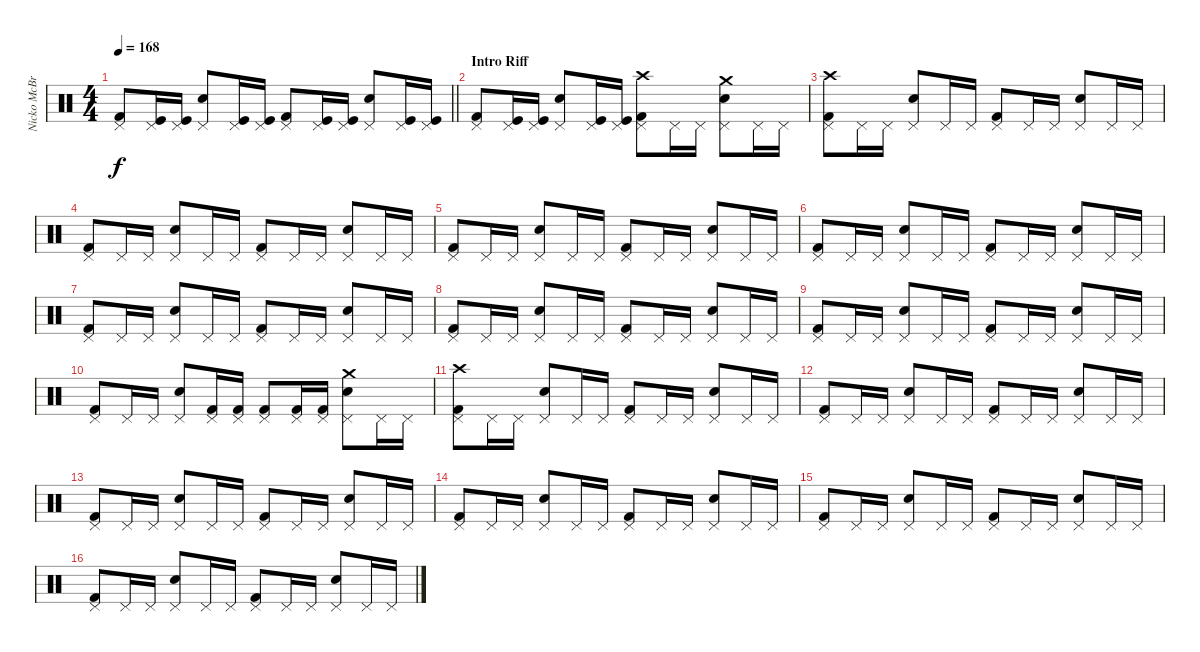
\track ("Nicko McBrain" "Nicko McBr") {instrument percussion}
\staff {score}
\articulation defaults
\ts (4 4)
\tempo 168
\clef neutral
\barLineRight lightlight
\ks c
("Kick (hit) 2" "Pedal Hi-Hat (hit)").8{dy f} ("Kick (hit)" "Pedal Hi-Hat (hit)").16 ("Kick (hit)" "Pedal Hi-Hat (hit)").16 ("Snare (hit) 2" "Pedal Hi-Hat (hit)").8 ("Kick (hit)" "Pedal Hi-Hat (hit)").16 ("Kick (hit)" "Pedal Hi-Hat (hit)").16 ("Kick (hit) 2" "Pedal Hi-Hat (hit)").8 ("Kick (hit)" "Pedal Hi-Hat (hit)").16 ("Kick (hit)" "Pedal Hi-Hat (hit)").16 ("Snare (hit) 2" "Pedal Hi-Hat (hit)").8 ("Kick (hit)" "Pedal Hi-Hat (hit)").16 ("Kick (hit)" "Pedal Hi-Hat (hit)").16 |
\section ("" "Intro Riff")
("Kick (hit) 2" "Pedal Hi-Hat (hit)").8 ("Kick (hit)" "Pedal Hi-Hat (hit)").16 ("Kick (hit)" "Pedal Hi-Hat (hit)").16 ("Snare (hit) 2" "Pedal Hi-Hat (hit)").8 ("Kick (hit)" "Pedal Hi-Hat (hit)").16 ("Kick (hit)" "Pedal Hi-Hat (hit)").16 ("Kick (hit) 2" "Pedal Hi-Hat (hit)" "Crash high (hit)").8 "Pedal Hi-Hat (hit)".16 "Pedal Hi-Hat (hit)".16 ("Snare (hit) 2" "Pedal Hi-Hat (hit)" "Crash medium (hit)").8 "Pedal Hi-Hat (hit)".16 "Pedal Hi-Hat (hit)".16 |
("Kick (hit) 2" "Pedal Hi-Hat (hit)" "Crash high (hit)").8 "Pedal Hi-Hat (hit)".16 "Pedal Hi-Hat (hit)".16 ("Snare (hit) 2" "Pedal Hi-Hat (hit)").8 "Pedal Hi-Hat (hit)".16 "Pedal Hi-Hat (hit)".16 ("Kick (hit) 2" "Pedal Hi-Hat (hit)").8 "Pedal Hi-Hat (hit)".16 "Pedal Hi-Hat (hit)".16 ("Snare (hit) 2" "Pedal Hi-Hat (hit)").8 "Pedal Hi-Hat (hit)".16 "Pedal Hi-Hat (hit)".16 |
("Kick (hit) 2" "Pedal Hi-Hat (hit)").8 "Pedal Hi-Hat (hit)".16 "Pedal Hi-Hat (hit)".16 ("Snare (hit) 2" "Pedal Hi-Hat (hit)").8 "Pedal Hi-Hat (hit)".16 "Pedal Hi-Hat (hit)".16 ("Kick (hit) 2" "Pedal Hi-Hat (hit)").8 "Pedal Hi-Hat (hit)".16 "Pedal Hi-Hat (hit)".16 ("Snare (hit) 2" "Pedal Hi-Hat (hit)").8 "Pedal Hi-Hat (hit)".16 "Pedal Hi-Hat (hit)".16 |
("Kick (hit) 2" "Pedal Hi-Hat (hit)").8 "Pedal Hi-Hat (hit)".16 "Pedal Hi-Hat (hit)".16 ("Snare (hit) 2" "Pedal Hi-Hat (hit)").8 "Pedal Hi-Hat (hit)".16 "Pedal Hi-Hat (hit)".16 ("Kick (hit) 2" "Pedal Hi-Hat (hit)").8 "Pedal Hi-Hat (hit)".16 "Pedal Hi-Hat (hit)".16 ("Snare (hit) 2" "Pedal Hi-Hat (hit)").8 "Pedal Hi-Hat (hit)".16 "Pedal Hi-Hat (hit)".16 |
("Kick (hit) 2" "Pedal Hi-Hat (hit)").8 "Pedal Hi-Hat (hit)".16 "Pedal Hi-Hat (hit)".16 ("Snare (hit) 2" "Pedal Hi-Hat (hit)").8 "Pedal Hi-Hat (hit)".16 "Pedal Hi-Hat (hit)".16 ("Kick (hit) 2" "Pedal Hi-Hat (hit)").8 "Pedal Hi-Hat (hit)".16 "Pedal Hi-Hat (hit)".16 ("Snare (hit) 2" "Pedal Hi-Hat (hit)").8 "Pedal Hi-Hat (hit)".16 "Pedal Hi-Hat (hit)".16 |
("Kick (hit) 2" "Pedal Hi-Hat (hit)").8 "Pedal Hi-Hat (hit)".16 "Pedal Hi-Hat (hit)".16 ("Snare (hit) 2" "Pedal Hi-Hat (hit)").8 "Pedal Hi-Hat (hit)".16 "Pedal Hi-Hat (hit)".16 ("Kick (hit) 2" "Pedal Hi-Hat (hit)").8 "Pedal Hi-Hat (hit)".16 "Pedal Hi-Hat (hit)".16 ("Snare (hit) 2" "Pedal Hi-Hat (hit)").8 "Pedal Hi-Hat (hit)".16 "Pedal Hi-Hat (hit)".16 |
("Kick (hit) 2" "Pedal Hi-Hat (hit)").8 "Pedal Hi-Hat (hit)".16 "Pedal Hi-Hat (hit)".16 ("Snare (hit) 2" "Pedal Hi-Hat (hit)").8 "Pedal Hi-Hat (hit)".16 "Pedal Hi-Hat (hit)".16 ("Kick (hit) 2" "Pedal Hi-Hat (hit)").8 "Pedal Hi-Hat (hit)".16 "Pedal Hi-Hat (hit)".16 ("Snare (hit) 2" "Pedal Hi-Hat (hit)").8 "Pedal Hi-Hat (hit)".16 "Pedal Hi-Hat (hit)".16 |
("Kick (hit) 2" "Pedal Hi-Hat (hit)").8 "Pedal Hi-Hat (hit)".16 "Pedal Hi-Hat (hit)".16 ("Snare (hit) 2" "Pedal Hi-Hat (hit)").8 "Pedal Hi-Hat (hit)".16 "Pedal Hi-Hat (hit)".16 ("Kick (hit) 2" "Pedal Hi-Hat (hit)").8 "Pedal Hi-Hat (hit)".16 "Pedal Hi-Hat (hit)".16 ("Snare (hit) 2" "Pedal Hi-Hat (hit)").8 "Pedal Hi-Hat (hit)".16 "Pedal Hi-Hat (hit)".16 |
("Kick (hit) 2" "Pedal Hi-Hat (hit)").8 "Pedal Hi-Hat (hit)".16 "Pedal Hi-Hat (hit)".16 ("Snare (hit) 2" "Pedal Hi-Hat (hit)").8 ("Kick (hit) 2" "Pedal Hi-Hat (hit)").16 ("Kick (hit) 2" "Pedal Hi-Hat (hit)").16 ("Kick (hit) 2" "Pedal Hi-Hat (hit)").8 ("Kick (hit) 2" "Pedal Hi-Hat (hit)").16 ("Kick (hit) 2" "Pedal Hi-Hat (hit)").16 ("Snare (hit) 2" "Pedal Hi-Hat (hit)" "Crash medium (hit)").8 "Pedal Hi-Hat (hit)".16 "Pedal Hi-Hat (hit)".16 |
("Kick (hit) 2" "Pedal Hi-Hat (hit)" "Crash high (hit)").8 "Pedal Hi-Hat (hit)".16 "Pedal Hi-Hat (hit)".16 ("Snare (hit) 2" "Pedal Hi-Hat (hit)").8 "Pedal Hi-Hat (hit)".16 "Pedal Hi-Hat (hit)".16 ("Kick (hit) 2" "Pedal Hi-Hat (hit)").8 "Pedal Hi-Hat (hit)".16 "Pedal Hi-Hat (hit)".16 ("Snare (hit) 2" "Pedal Hi-Hat (hit)").8 "Pedal Hi-Hat (hit)".16 "Pedal Hi-Hat (hit)".16 |
("Kick (hit) 2" "Pedal Hi-Hat (hit)").8 "Pedal Hi-Hat (hit)".16 "Pedal Hi-Hat (hit)".16 ("Snare (hit) 2" "Pedal Hi-Hat (hit)").8 "Pedal Hi-Hat (hit)".16 "Pedal Hi-Hat (hit)".16 ("Kick (hit) 2" "Pedal Hi-Hat (hit)").8 "Pedal Hi-Hat (hit)".16 "Pedal Hi-Hat (hit)".16 ("Snare (hit) 2" "Pedal Hi-Hat (hit)").8 "Pedal Hi-Hat (hit)".16 "Pedal Hi-Hat (hit)".16 |
("Kick (hit) 2" "Pedal Hi-Hat (hit)").8 "Pedal Hi-Hat (hit)".16 "Pedal Hi-Hat (hit)".16 ("Snare (hit) 2" "Pedal Hi-Hat (hit)").8 "Pedal Hi-Hat (hit)".16 "Pedal Hi-Hat (hit)".16 ("Kick (hit) 2" "Pedal Hi-Hat (hit)").8 "Pedal Hi-Hat (hit)".16 "Pedal Hi-Hat (hit)".16 ("Snare (hit) 2" "Pedal Hi-Hat (hit)").8 "Pedal Hi-Hat (hit)".16 "Pedal Hi-Hat (hit)".16 |
("Kick (hit) 2" "Pedal Hi-Hat (hit)").8 "Pedal Hi-Hat (hit)".16 "Pedal Hi-Hat (hit)".16 ("Snare (hit) 2" "Pedal Hi-Hat (hit)").8 "Pedal Hi-Hat (hit)".16 "Pedal Hi-Hat (hit)".16 ("Kick (hit) 2" "Pedal Hi-Hat (hit)").8 "Pedal Hi-Hat (hit)".16 "Pedal Hi-Hat (hit)".16 ("Snare (hit) 2" "Pedal Hi-Hat (hit)").8 "Pedal Hi-Hat (hit)".16 "Pedal Hi-Hat (hit)".16 |
("Kick (hit) 2" "Pedal Hi-Hat (hit)").8 "Pedal Hi-Hat (hit)".16 "Pedal Hi-Hat (hit)".16 ("Snare (hit) 2" "Pedal Hi-Hat (hit)").8 "Pedal Hi-Hat (hit)".16 "Pedal Hi-Hat (hit)".16 ("Kick (hit) 2" "Pedal Hi-Hat (hit)").8 "Pedal Hi-Hat (hit)".16 "Pedal Hi-Hat (hit)".16 ("Snare (hit) 2" "Pedal Hi-Hat (hit)").8 "Pedal Hi-Hat (hit)".16 "Pedal Hi-Hat (hit)".16 |
("Kick (hit) 2" "Pedal Hi-Hat (hit)").8 "Pedal Hi-Hat (hit)".16 "Pedal Hi-Hat (hit)".16 ("Snare (hit) 2" "Pedal Hi-Hat (hit)").8 "Pedal Hi-Hat (hit)".16 "Pedal Hi-Hat (hit)".16 ("Kick (hit) 2" "Pedal Hi-Hat (hit)").8 "Pedal Hi-Hat (hit)".16 "Pedal Hi-Hat (hit)".16 ("Snare (hit) 2" "Pedal Hi-Hat (hit)").8 "Pedal Hi-Hat (hit)".16 "Pedal Hi-Hat (hit)".16
